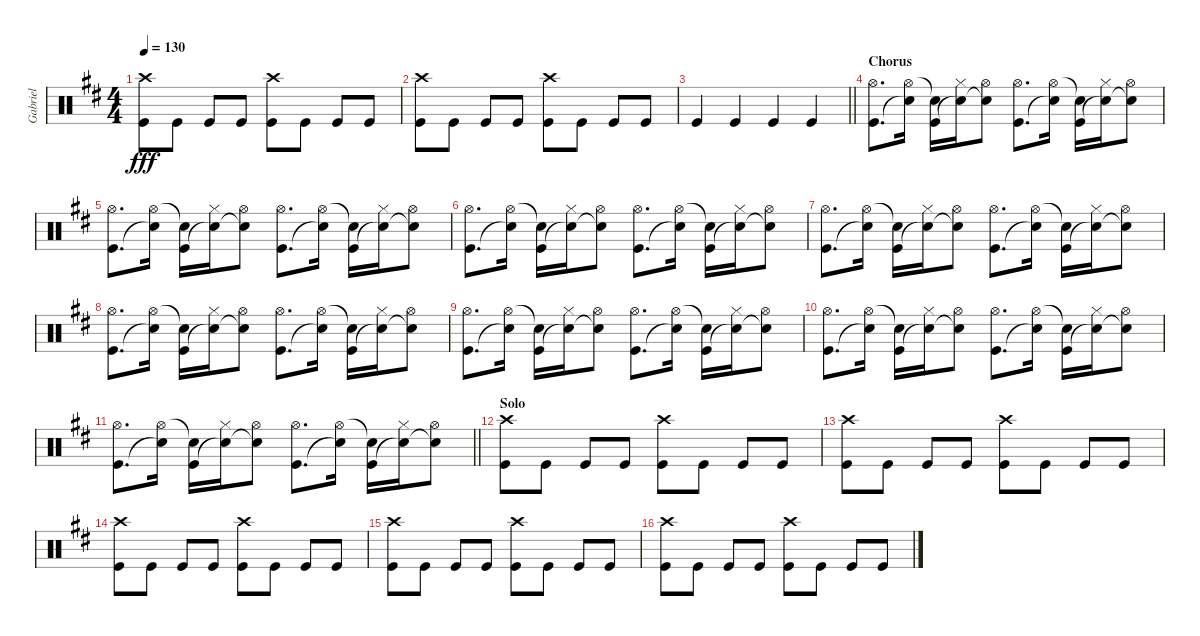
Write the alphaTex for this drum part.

\track ("Gabriel" "Gabriel") {instrument percussion}
\staff {score}
\articulation defaults
\ts (4 4)
\tempo 130
\clef neutral
\ks d
("Crash high (hit)" "Kick (hit)").8{dy fff} "Kick (hit)".8 "Kick (hit)".8 "Kick (hit)".8 ("Crash high (hit)" "Kick (hit)").8 "Kick (hit)".8 "Kick (hit)".8 "Kick (hit)".8 |
("Crash high (hit)" "Kick (hit)").8 "Kick (hit)".8 "Kick (hit)".8 "Kick (hit)".8 ("Crash high (hit)" "Kick (hit)").8 "Kick (hit)".8 "Kick (hit)".8 "Kick (hit)".8 |
\barLineRight lightlight "Kick (hit)".4 "Kick (hit)".4 "Kick (hit)".4 "Kick (hit)".4
|
\section ("" "Chorus")
("Hi-Hat (open)" "Kick (hit)").8{d} ("Hi-Hat (open)" "Snare (hit)"{t}).16 ("Snare (hit)"{t} "Kick (hit)").16 ("Hi-Hat (closed)" "Snare (hit)"{t}).16 ("Hi-Hat (open)" "Snare (hit)"{t}).8 ("Hi-Hat (open)" "Kick (hit)").8{d} ("Hi-Hat (open)" "Snare (hit)"{t}).16 ("Snare (hit)"{t} "Kick (hit)").16 ("Hi-Hat (closed)" "Snare (hit)"{t}).16 ("Hi-Hat (open)" "Snare (hit)"{t}).8 |
("Hi-Hat (open)" "Kick (hit)").8{d} ("Hi-Hat (open)" "Snare (hit)"{t}).16 ("Snare (hit)"{t} "Kick (hit)").16 ("Hi-Hat (closed)" "Snare (hit)"{t}).16 ("Hi-Hat (open)" "Snare (hit)"{t}).8 ("Hi-Hat (open)" "Kick (hit)").8{d} ("Hi-Hat (open)" "Snare (hit)"{t}).16 ("Snare (hit)"{t} "Kick (hit)").16 ("Hi-Hat (closed)" "Snare (hit)"{t}).16 ("Hi-Hat (open)" "Snare (hit)"{t}).8 |
("Hi-Hat (open)" "Kick (hit)").8{d} ("Hi-Hat (open)" "Snare (hit)"{t}).16 ("Snare (hit)"{t} "Kick (hit)").16 ("Hi-Hat (closed)" "Snare (hit)"{t}).16 ("Hi-Hat (open)" "Snare (hit)"{t}).8 ("Hi-Hat (open)" "Kick (hit)").8{d} ("Hi-Hat (open)" "Snare (hit)"{t}).16 ("Snare (hit)"{t} "Kick (hit)").16 ("Hi-Hat (closed)" "Snare (hit)"{t}).16 ("Hi-Hat (open)" "Snare (hit)"{t}).8 |
("Hi-Hat (open)" "Kick (hit)").8{d} ("Hi-Hat (open)" "Snare (hit)"{t}).16 ("Snare (hit)"{t} "Kick (hit)").16 ("Hi-Hat (closed)" "Snare (hit)"{t}).16 ("Hi-Hat (open)" "Snare (hit)"{t}).8 ("Hi-Hat (open)" "Kick (hit)").8{d} ("Hi-Hat (open)" "Snare (hit)"{t}).16 ("Snare (hit)"{t} "Kick (hit)").16 ("Hi-Hat (closed)" "Snare (hit)"{t}).16 ("Hi-Hat (open)" "Snare (hit)"{t}).8 |
("Hi-Hat (open)" "Kick (hit)").8{d} ("Hi-Hat (open)" "Snare (hit)"{t}).16 ("Snare (hit)"{t} "Kick (hit)").16 ("Hi-Hat (closed)" "Snare (hit)"{t}).16 ("Hi-Hat (open)" "Snare (hit)"{t}).8 ("Hi-Hat (open)" "Kick (hit)").8{d} ("Hi-Hat (open)" "Snare (hit)"{t}).16 ("Snare (hit)"{t} "Kick (hit)").16 ("Hi-Hat (closed)" "Snare (hit)"{t}).16 ("Hi-Hat (open)" "Snare (hit)"{t}).8 |
("Hi-Hat (open)" "Kick (hit)").8{d} ("Hi-Hat (open)" "Snare (hit)"{t}).16 ("Snare (hit)"{t} "Kick (hit)").16 ("Hi-Hat (closed)" "Snare (hit)"{t}).16 ("Hi-Hat (open)" "Snare (hit)"{t}).8 ("Hi-Hat (open)" "Kick (hit)").8{d} ("Hi-Hat (open)" "Snare (hit)"{t}).16 ("Snare (hit)"{t} "Kick (hit)").16 ("Hi-Hat (closed)" "Snare (hit)"{t}).16 ("Hi-Hat (open)" "Snare (hit)"{t}).8 |
("Hi-Hat (open)" "Kick (hit)").8{d} ("Hi-Hat (open)" "Snare (hit)"{t}).16 ("Snare (hit)"{t} "Kick (hit)").16 ("Hi-Hat (closed)" "Snare (hit)"{t}).16 ("Hi-Hat (open)" "Snare (hit)"{t}).8 ("Hi-Hat (open)" "Kick (hit)").8{d} ("Hi-Hat (open)" "Snare (hit)"{t}).16 ("Snare (hit)"{t} "Kick (hit)").16 ("Hi-Hat (closed)" "Snare (hit)"{t}).16 ("Hi-Hat (open)" "Snare (hit)"{t}).8 |
\barLineRight lightlight
("Hi-Hat (open)" "Kick (hit)").8{d} ("Hi-Hat (open)" "Snare (hit)"{t}).16 ("Snare (hit)"{t} "Kick (hit)").16 ("Hi-Hat (closed)" "Snare (hit)"{t}).16 ("Hi-Hat (open)" "Snare (hit)"{t}).8 ("Hi-Hat (open)" "Kick (hit)").8{d} ("Hi-Hat (open)" "Snare (hit)"{t}).16 ("Snare (hit)"{t} "Kick (hit)").16 ("Hi-Hat (closed)" "Snare (hit)"{t}).16 ("Hi-Hat (open)" "Snare (hit)"{t}).8 |
\section ("" "Solo")
("Crash high (hit)" "Kick (hit)").8 "Kick (hit)".8 "Kick (hit)".8 "Kick (hit)".8 ("Crash high (hit)" "Kick (hit)").8 "Kick (hit)".8 "Kick (hit)".8 "Kick (hit)".8 |
("Crash high (hit)" "Kick (hit)").8 "Kick (hit)".8 "Kick (hit)".8 "Kick (hit)".8 ("Crash high (hit)" "Kick (hit)").8 "Kick (hit)".8 "Kick (hit)".8 "Kick (hit)".8 |
("Crash high (hit)" "Kick (hit)").8 "Kick (hit)".8 "Kick (hit)".8 "Kick (hit)".8 ("Crash high (hit)" "Kick (hit)").8 "Kick (hit)".8 "Kick (hit)".8 "Kick (hit)".8 |
("Crash high (hit)" "Kick (hit)").8 "Kick (hit)".8 "Kick (hit)".8 "Kick (hit)".8 ("Crash high (hit)" "Kick (hit)").8 "Kick (hit)".8 "Kick (hit)".8 "Kick (hit)".8 |
("Crash high (hit)" "Kick (hit)").8 "Kick (hit)".8 "Kick (hit)".8 "Kick (hit)".8 ("Crash high (hit)" "Kick (hit)").8 "Kick (hit)".8 "Kick (hit)".8 "Kick (hit)".8
